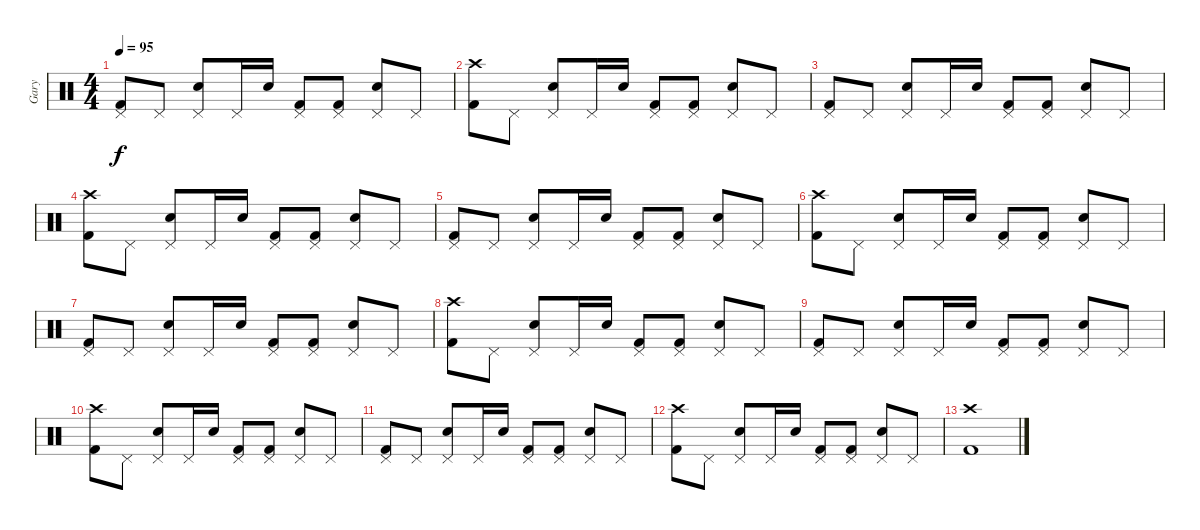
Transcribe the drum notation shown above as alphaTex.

\track ("Gary" "Gary") {instrument percussion}
\staff {score}
\articulation defaults
\ts (4 4)
\tempo 95
\clef neutral
\ks c
("Pedal Hi-Hat (hit)" "Kick (hit) 2").8{dy f} "Pedal Hi-Hat (hit)".8 ("Pedal Hi-Hat (hit)" "Electric Snare (hit)").8 "Pedal Hi-Hat (hit)".16 "Electric Snare (hit)".16 ("Pedal Hi-Hat (hit)" "Kick (hit) 2").8 ("Pedal Hi-Hat (hit)" "Kick (hit) 2").8 ("Pedal Hi-Hat (hit)" "Electric Snare (hit)").8 "Pedal Hi-Hat (hit)".8 |
("Crash high (hit)" "Kick (hit) 2").8 "Pedal Hi-Hat (hit)".8 ("Pedal Hi-Hat (hit)" "Electric Snare (hit)").8 "Pedal Hi-Hat (hit)".16 "Electric Snare (hit)".16 ("Pedal Hi-Hat (hit)" "Kick (hit) 2").8 ("Pedal Hi-Hat (hit)" "Kick (hit) 2").8 ("Pedal Hi-Hat (hit)" "Electric Snare (hit)").8 "Pedal Hi-Hat (hit)".8 |
("Pedal Hi-Hat (hit)" "Kick (hit) 2").8 "Pedal Hi-Hat (hit)".8 ("Pedal Hi-Hat (hit)" "Electric Snare (hit)").8 "Pedal Hi-Hat (hit)".16 "Electric Snare (hit)".16 ("Pedal Hi-Hat (hit)" "Kick (hit) 2").8 ("Pedal Hi-Hat (hit)" "Kick (hit) 2").8 ("Pedal Hi-Hat (hit)" "Electric Snare (hit)").8 "Pedal Hi-Hat (hit)".8 |
("Crash high (hit)" "Kick (hit) 2").8 "Pedal Hi-Hat (hit)".8 ("Pedal Hi-Hat (hit)" "Electric Snare (hit)").8 "Pedal Hi-Hat (hit)".16 "Electric Snare (hit)".16 ("Pedal Hi-Hat (hit)" "Kick (hit) 2").8 ("Pedal Hi-Hat (hit)" "Kick (hit) 2").8 ("Pedal Hi-Hat (hit)" "Electric Snare (hit)").8 "Pedal Hi-Hat (hit)".8 |
("Pedal Hi-Hat (hit)" "Kick (hit) 2").8 "Pedal Hi-Hat (hit)".8 ("Pedal Hi-Hat (hit)" "Electric Snare (hit)").8 "Pedal Hi-Hat (hit)".16 "Electric Snare (hit)".16 ("Pedal Hi-Hat (hit)" "Kick (hit) 2").8 ("Pedal Hi-Hat (hit)" "Kick (hit) 2").8 ("Pedal Hi-Hat (hit)" "Electric Snare (hit)").8 "Pedal Hi-Hat (hit)".8 |
("Crash high (hit)" "Kick (hit) 2").8 "Pedal Hi-Hat (hit)".8 ("Pedal Hi-Hat (hit)" "Electric Snare (hit)").8 "Pedal Hi-Hat (hit)".16 "Electric Snare (hit)".16 ("Pedal Hi-Hat (hit)" "Kick (hit) 2").8 ("Pedal Hi-Hat (hit)" "Kick (hit) 2").8 ("Pedal Hi-Hat (hit)" "Electric Snare (hit)").8 "Pedal Hi-Hat (hit)".8 |
("Pedal Hi-Hat (hit)" "Kick (hit) 2").8 "Pedal Hi-Hat (hit)".8 ("Pedal Hi-Hat (hit)" "Electric Snare (hit)").8 "Pedal Hi-Hat (hit)".16 "Electric Snare (hit)".16 ("Pedal Hi-Hat (hit)" "Kick (hit) 2").8 ("Pedal Hi-Hat (hit)" "Kick (hit) 2").8 ("Pedal Hi-Hat (hit)" "Electric Snare (hit)").8 "Pedal Hi-Hat (hit)".8 |
("Crash high (hit)" "Kick (hit) 2").8 "Pedal Hi-Hat (hit)".8 ("Pedal Hi-Hat (hit)" "Electric Snare (hit)").8 "Pedal Hi-Hat (hit)".16 "Electric Snare (hit)".16 ("Pedal Hi-Hat (hit)" "Kick (hit) 2").8 ("Pedal Hi-Hat (hit)" "Kick (hit) 2").8 ("Pedal Hi-Hat (hit)" "Electric Snare (hit)").8 "Pedal Hi-Hat (hit)".8 |
("Pedal Hi-Hat (hit)" "Kick (hit) 2").8 "Pedal Hi-Hat (hit)".8 ("Pedal Hi-Hat (hit)" "Electric Snare (hit)").8 "Pedal Hi-Hat (hit)".16 "Electric Snare (hit)".16 ("Pedal Hi-Hat (hit)" "Kick (hit) 2").8 ("Pedal Hi-Hat (hit)" "Kick (hit) 2").8 ("Pedal Hi-Hat (hit)" "Electric Snare (hit)").8 "Pedal Hi-Hat (hit)".8 |
("Crash high (hit)" "Kick (hit) 2").8 "Pedal Hi-Hat (hit)".8 ("Pedal Hi-Hat (hit)" "Electric Snare (hit)").8 "Pedal Hi-Hat (hit)".16 "Electric Snare (hit)".16 ("Pedal Hi-Hat (hit)" "Kick (hit) 2").8 ("Pedal Hi-Hat (hit)" "Kick (hit) 2").8 ("Pedal Hi-Hat (hit)" "Electric Snare (hit)").8 "Pedal Hi-Hat (hit)".8 |
("Pedal Hi-Hat (hit)" "Kick (hit) 2").8 "Pedal Hi-Hat (hit)".8 ("Pedal Hi-Hat (hit)" "Electric Snare (hit)").8 "Pedal Hi-Hat (hit)".16 "Electric Snare (hit)".16 ("Pedal Hi-Hat (hit)" "Kick (hit) 2").8 ("Pedal Hi-Hat (hit)" "Kick (hit) 2").8 ("Pedal Hi-Hat (hit)" "Electric Snare (hit)").8 "Pedal Hi-Hat (hit)".8 |
("Crash high (hit)" "Kick (hit) 2").8 "Pedal Hi-Hat (hit)".8 ("Pedal Hi-Hat (hit)" "Electric Snare (hit)").8 "Pedal Hi-Hat (hit)".16 "Electric Snare (hit)".16 ("Pedal Hi-Hat (hit)" "Kick (hit) 2").8 ("Pedal Hi-Hat (hit)" "Kick (hit) 2").8 ("Pedal Hi-Hat (hit)" "Electric Snare (hit)").8 "Pedal Hi-Hat (hit)".8 |
("Crash high (hit)" "Kick (hit) 2").1
